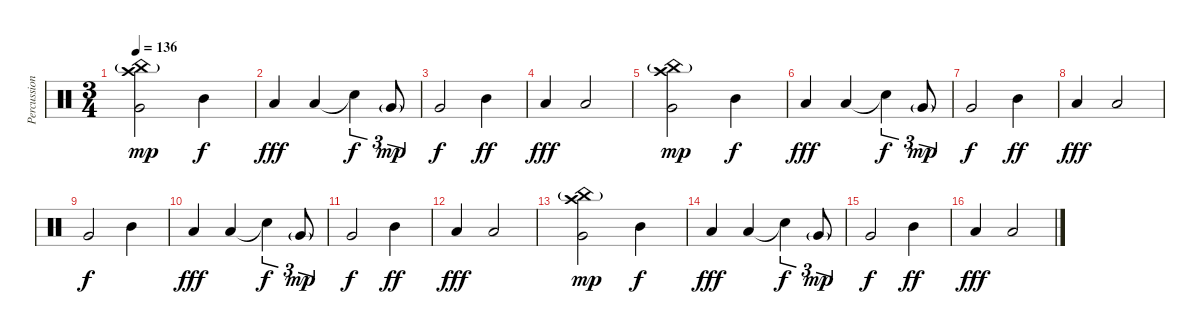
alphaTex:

\track ("Percussions / Stephen Van Haestregt" "Percussion") {instrument percussion}
\staff {score}
\articulation defaults
\ts (3 4)
\tempo 136
\clef neutral
\ks c
("Crash high (hit)" "China (hit)"{g} "Very Low Tom (hit)").2{dy mp} "Mid Tom (hit)".4{dy f} |
"Low Tom (hit)".4{dy fff} "Low Tom (hit)".4 "Snare (hit)"{t}.4{tu (3 2) dy f} "Very Low Tom (hit)"{g}.8{tu (3 2) dy mp} |
"Very Low Tom (hit)".2{dy f} "Mid Tom (hit)".4{dy ff} |
"Low Tom (hit)".4{dy fff} "Low Tom (hit)".2 |
("Crash high (hit)" "China (hit)"{g} "Very Low Tom (hit)").2{dy mp} "Mid Tom (hit)".4{dy f} |
"Low Tom (hit)".4{dy fff} "Low Tom (hit)".4 "Snare (hit)"{t}.4{tu (3 2) dy f} "Very Low Tom (hit)"{g}.8{tu (3 2) dy mp} |
"Very Low Tom (hit)".2{dy f} "Mid Tom (hit)".4{dy ff} |
"Low Tom (hit)".4{dy fff} "Low Tom (hit)".2 |
"Very Low Tom (hit)".2{dy f} "Mid Tom (hit)".4 |
"Low Tom (hit)".4{dy fff} "Low Tom (hit)".4 "Snare (hit)"{t}.4{tu (3 2) dy f} "Very Low Tom (hit)"{g}.8{tu (3 2) dy mp} |
"Very Low Tom (hit)".2{dy f} "Mid Tom (hit)".4{dy ff} |
"Low Tom (hit)".4{dy fff} "Low Tom (hit)".2 |
("Crash high (hit)" "China (hit)"{g} "Very Low Tom (hit)").2{dy mp} "Mid Tom (hit)".4{dy f} |
"Low Tom (hit)".4{dy fff} "Low Tom (hit)".4 "Snare (hit)"{t}.4{tu (3 2) dy f} "Very Low Tom (hit)"{g}.8{tu (3 2) dy mp} |
"Very Low Tom (hit)".2{dy f} "Mid Tom (hit)".4{dy ff} |
"Low Tom (hit)".4{dy fff} "Low Tom (hit)".2
